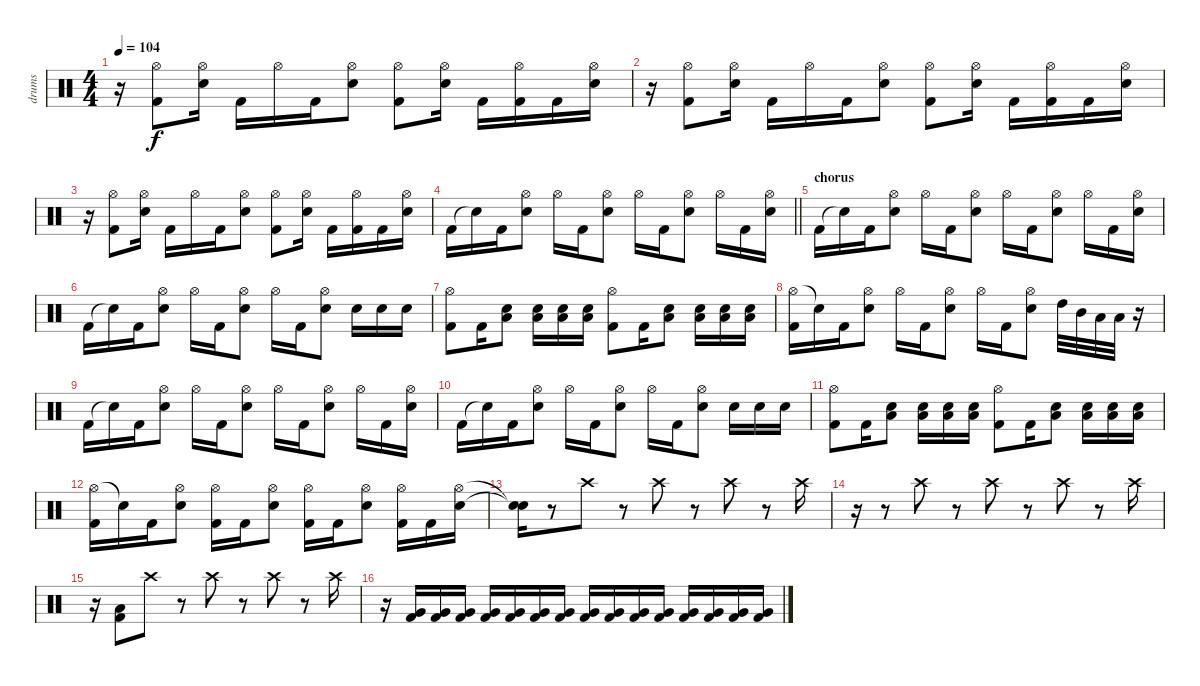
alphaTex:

\track ("drums" "drums") {instrument percussion}
\staff {score}
\articulation defaults
\ts (4 4)
\tempo 104
\clef neutral
\ks c
r.16{dy f} ("Hi-Hat (open)" "Kick (hit) 2").8 ("Hi-Hat (open)" "Electric Snare (hit)").16 "Kick (hit) 2".16 "Hi-Hat (open)".16 "Kick (hit) 2".16 ("Hi-Hat (open)" "Electric Snare (hit)").8 ("Hi-Hat (open)" "Kick (hit) 2").8 ("Hi-Hat (open)" "Electric Snare (hit)").16 "Kick (hit) 2".16 ("Hi-Hat (open)" "Kick (hit) 2").16 "Kick (hit) 2".16 ("Hi-Hat (open)" "Electric Snare (hit)").16 |
r.16 ("Hi-Hat (open)" "Kick (hit) 2").8 ("Hi-Hat (open)" "Electric Snare (hit)").16 "Kick (hit) 2".16 "Hi-Hat (open)".16 "Kick (hit) 2".16 ("Hi-Hat (open)" "Electric Snare (hit)").8 ("Hi-Hat (open)" "Kick (hit) 2").8 ("Hi-Hat (open)" "Electric Snare (hit)").16 "Kick (hit) 2".16 ("Hi-Hat (open)" "Kick (hit) 2").16 "Kick (hit) 2".16 ("Hi-Hat (open)" "Electric Snare (hit)").16 |
r.16 ("Hi-Hat (open)" "Kick (hit) 2").8 ("Hi-Hat (open)" "Electric Snare (hit)").16 "Kick (hit) 2".16 "Hi-Hat (open)".16 "Kick (hit) 2".16 ("Hi-Hat (open)" "Electric Snare (hit)").8 ("Hi-Hat (open)" "Kick (hit) 2").8 ("Hi-Hat (open)" "Electric Snare (hit)").16 "Kick (hit) 2".16 ("Hi-Hat (open)" "Kick (hit) 2").16 "Kick (hit) 2".16 ("Hi-Hat (open)" "Electric Snare (hit)").16 |
\barLineRight lightlight "Kick (hit) 2".16 "Snare (hit)"{t}.16 "Kick (hit) 2".16
("Hi-Hat (open)" "Electric Snare (hit)").8 "Hi-Hat (open)".16 "Kick (hit) 2".16 ("Hi-Hat (open)" "Electric Snare (hit)").8 "Hi-Hat (open)".16 "Kick (hit) 2".16 ("Hi-Hat (open)" "Electric Snare (hit)").8 "Hi-Hat (open)".16 "Kick (hit) 2".16 ("Hi-Hat (open)" "Electric Snare (hit)").16 |
\section ("" "chorus")
"Kick (hit) 2".16 "Snare (hit)"{t}.16 "Kick (hit) 2".16 ("Hi-Hat (open)" "Electric Snare (hit)").8 "Hi-Hat (open)".16 "Kick (hit) 2".16 ("Hi-Hat (open)" "Electric Snare (hit)").8 "Hi-Hat (open)".16 "Kick (hit) 2".16 ("Hi-Hat (open)" "Electric Snare (hit)").8 "Hi-Hat (open)".16 "Kick (hit) 2".16 ("Hi-Hat (open)" "Electric Snare (hit)").16 |
"Kick (hit) 2".16 "Snare (hit)"{t}.16 "Kick (hit) 2".16 ("Hi-Hat (open)" "Electric Snare (hit)").8 "Hi-Hat (open)".16 "Kick (hit) 2".16 ("Hi-Hat (open)" "Electric Snare (hit)").8 "Hi-Hat (open)".16 "Kick (hit) 2".16 ("Hi-Hat (open)" "Electric Snare (hit)").8 "Electric Snare (hit)".16 "Electric Snare (hit)".16 "Electric Snare (hit)".16 |
("Hi-Hat (open)" "Kick (hit) 2").8 "Kick (hit) 2".16 ("Low Floor Tom (hit)" "Electric Snare (hit)").8 ("Low Floor Tom (hit)" "Electric Snare (hit)").16 ("Low Floor Tom (hit)" "Electric Snare (hit)").16 ("Low Floor Tom (hit)" "Electric Snare (hit)").16 ("Hi-Hat (open)" "Kick (hit) 2").8 "Kick (hit) 2".16 ("Low Floor Tom (hit)" "Electric Snare (hit)").8 ("Low Floor Tom (hit)" "Electric Snare (hit)").16 ("Low Floor Tom (hit)" "Electric Snare (hit)").16 ("Low Floor Tom (hit)" "Electric Snare (hit)").16 |
("Hi-Hat (open)" "Kick (hit) 2").16 "Snare (hit)"{t}.16 "Kick (hit) 2".16 ("Hi-Hat (open)" "Electric Snare (hit)").8 "Hi-Hat (open)".16 "Kick (hit) 2".16 ("Hi-Hat (open)" "Electric Snare (hit)").8 "Hi-Hat (open)".16 "Kick (hit) 2".16 ("Hi-Hat (open)" "Electric Snare (hit)").8 "High Tom (hit)".32 "Mid Tom (hit)".32 "Low Tom (hit)".32 "Low Floor Tom (hit)".32 r.16 |
"Kick (hit) 2".16 "Snare (hit)"{t}.16 "Kick (hit) 2".16 ("Hi-Hat (open)" "Electric Snare (hit)").8 "Hi-Hat (open)".16 "Kick (hit) 2".16 ("Hi-Hat (open)" "Electric Snare (hit)").8 "Hi-Hat (open)".16 "Kick (hit) 2".16 ("Hi-Hat (open)" "Electric Snare (hit)").8 "Hi-Hat (open)".16 "Kick (hit) 2".16 ("Hi-Hat (open)" "Electric Snare (hit)").16 |
"Kick (hit) 2".16 "Snare (hit)"{t}.16 "Kick (hit) 2".16 ("Hi-Hat (open)" "Electric Snare (hit)").8 "Hi-Hat (open)".16 "Kick (hit) 2".16 ("Hi-Hat (open)" "Electric Snare (hit)").8 "Hi-Hat (open)".16 "Kick (hit) 2".16 ("Hi-Hat (open)" "Electric Snare (hit)").8 "Electric Snare (hit)".16 "Electric Snare (hit)".16 "Electric Snare (hit)".16 |
("Hi-Hat (open)" "Kick (hit) 2").8 "Kick (hit) 2".16 ("Low Floor Tom (hit)" "Electric Snare (hit)").8 ("Low Floor Tom (hit)" "Electric Snare (hit)").16 ("Low Floor Tom (hit)" "Electric Snare (hit)").16 ("Low Floor Tom (hit)" "Electric Snare (hit)").16 ("Hi-Hat (open)" "Kick (hit) 2").8 "Kick (hit) 2".16 ("Low Floor Tom (hit)" "Electric Snare (hit)").8 ("Low Floor Tom (hit)" "Electric Snare (hit)").16 ("Low Floor Tom (hit)" "Electric Snare (hit)").16 ("Low Floor Tom (hit)" "Electric Snare (hit)").16 |
("Hi-Hat (open)" "Kick (hit) 2").16 "Snare (hit)"{t}.16 "Kick (hit) 2".16 ("Hi-Hat (open)" "Electric Snare (hit)").8 ("Hi-Hat (open)" "Kick (hit) 2").16 "Kick (hit) 2".16 ("Hi-Hat (open)" "Electric Snare (hit)").8 ("Hi-Hat (open)" "Kick (hit) 2").16 "Kick (hit) 2".16 ("Hi-Hat (open)" "Electric Snare (hit)").8 ("Hi-Hat (open)" "Kick (hit) 2").16 "Kick (hit) 2".16 ("Hi-Hat (open)" "Electric Snare (hit)").16 |
("Snare (hit)"{t} "Snare (hit)"{t}).16 r.8 "Crash high (hit)".8 r.8 "Crash high (hit)".8 r.8 "Crash high (hit)".8 r.8 "Crash high (hit)".16 |
r.16 r.8 "Crash high (hit)".8 r.8 "Crash high (hit)".8 r.8 "Crash high (hit)".8 r.8 "Crash high (hit)".16 |
r.16 ("Low Floor Tom (hit)" "Kick (hit) 2").8 "Crash high (hit)".8 r.8 "Crash high (hit)".8 r.8 "Crash high (hit)".8 r.8 "Crash high (hit)".16 |
r.16 ("Very Low Tom (hit)" "Kick (hit) 2").16 ("Very Low Tom (hit)" "Kick (hit) 2").16 ("Very Low Tom (hit)" "Kick (hit) 2").16 ("Very Low Tom (hit)" "Kick (hit) 2").16 ("Very Low Tom (hit)" "Kick (hit) 2").16 ("Very Low Tom (hit)" "Kick (hit) 2").16 ("Very Low Tom (hit)" "Kick (hit) 2").16 ("Very Low Tom (hit)" "Kick (hit) 2").16 ("Very Low Tom (hit)" "Kick (hit) 2").16 ("Very Low Tom (hit)" "Kick (hit) 2").16 ("Very Low Tom (hit)" "Kick (hit) 2").16 ("Very Low Tom (hit)" "Kick (hit) 2").16 ("Very Low Tom (hit)" "Kick (hit) 2").16 ("Very Low Tom (hit)" "Kick (hit) 2").16 ("Very Low Tom (hit)" "Kick (hit) 2").16
